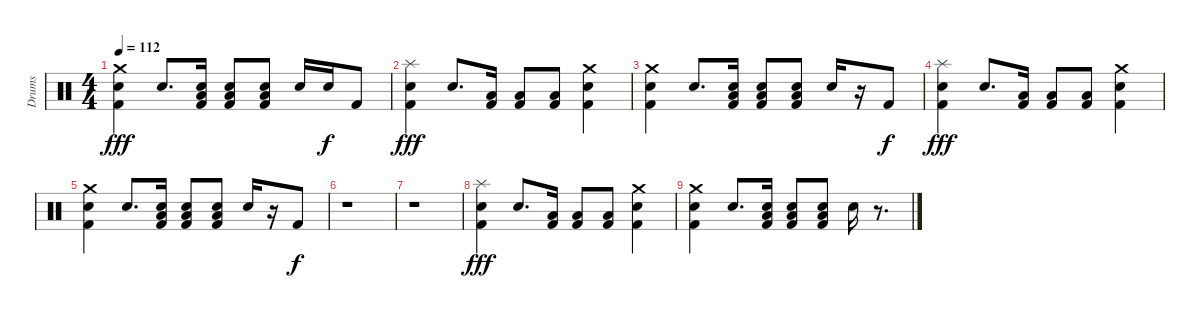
\track ("Drums" "Drums") {instrument percussion}
\staff {score}
\articulation defaults
\ts (4 4)
\tempo 112
\clef neutral
\ks c
("Crash medium (hit)" "Electric Snare (hit)" "Kick (hit) 2").4{dy fff} "Electric Snare (hit)".8{d} ("Kick (hit) 2" "Snare (hit) 2" "Low Floor Tom (hit)").16 ("Kick (hit) 2" "Snare (hit) 2" "Low Floor Tom (hit)").8 ("Kick (hit) 2" "Snare (hit) 2" "Low Floor Tom (hit)").8 "Electric Snare (hit)".16 "Electric Snare (hit)".16{dy f} "Kick (hit) 2".8 |
("Splash (hit)" "Snare (hit) 2" "Kick (hit) 2").4{dy fff} "Electric Snare (hit)".8{d} ("Kick (hit) 2" "Low Floor Tom (hit)").16 ("Kick (hit) 2" "Low Floor Tom (hit)").8 ("Kick (hit) 2" "Low Floor Tom (hit)").8 ("Crash medium (hit)" "Electric Snare (hit)" "Kick (hit) 2").4 |
("Crash medium (hit)" "Electric Snare (hit)" "Kick (hit) 2").4 "Electric Snare (hit)".8{d} ("Kick (hit) 2" "Snare (hit) 2" "Low Floor Tom (hit)").16 ("Kick (hit) 2" "Snare (hit) 2" "Low Floor Tom (hit)").8 ("Kick (hit) 2" "Snare (hit) 2" "Low Floor Tom (hit)").8 "Electric Snare (hit)".16 r.16 "Kick (hit) 2".8{dy f} |
("Splash (hit)" "Snare (hit) 2" "Kick (hit) 2").4{dy fff} "Electric Snare (hit)".8{d} ("Kick (hit) 2" "Low Floor Tom (hit)").16 ("Kick (hit) 2" "Low Floor Tom (hit)").8 ("Kick (hit) 2" "Low Floor Tom (hit)").8 ("Crash medium (hit)" "Electric Snare (hit)" "Kick (hit) 2").4 |
("Crash medium (hit)" "Electric Snare (hit)" "Kick (hit) 2").4 "Electric Snare (hit)".8{d} ("Kick (hit) 2" "Snare (hit) 2" "Low Floor Tom (hit)").16 ("Kick (hit) 2" "Snare (hit) 2" "Low Floor Tom (hit)").8 ("Kick (hit) 2" "Snare (hit) 2" "Low Floor Tom (hit)").8 "Electric Snare (hit)".16 r.16 "Kick (hit) 2".8{dy f} |
r.1 |
r.1 |
("Splash (hit)" "Snare (hit) 2" "Kick (hit) 2").4{dy fff} "Electric Snare (hit)".8{d} ("Kick (hit) 2" "Low Floor Tom (hit)").16 ("Kick (hit) 2" "Low Floor Tom (hit)").8 ("Kick (hit) 2" "Low Floor Tom (hit)").8 ("Crash medium (hit)" "Electric Snare (hit)" "Kick (hit) 2").4 |
("Crash medium (hit)" "Electric Snare (hit)" "Kick (hit) 2").4 "Electric Snare (hit)".8{d} ("Kick (hit) 2" "Snare (hit) 2" "Low Floor Tom (hit)").16 ("Kick (hit) 2" "Snare (hit) 2" "Low Floor Tom (hit)").8 ("Kick (hit) 2" "Snare (hit) 2" "Low Floor Tom (hit)").8 "Electric Snare (hit)".16 r.8{d}
